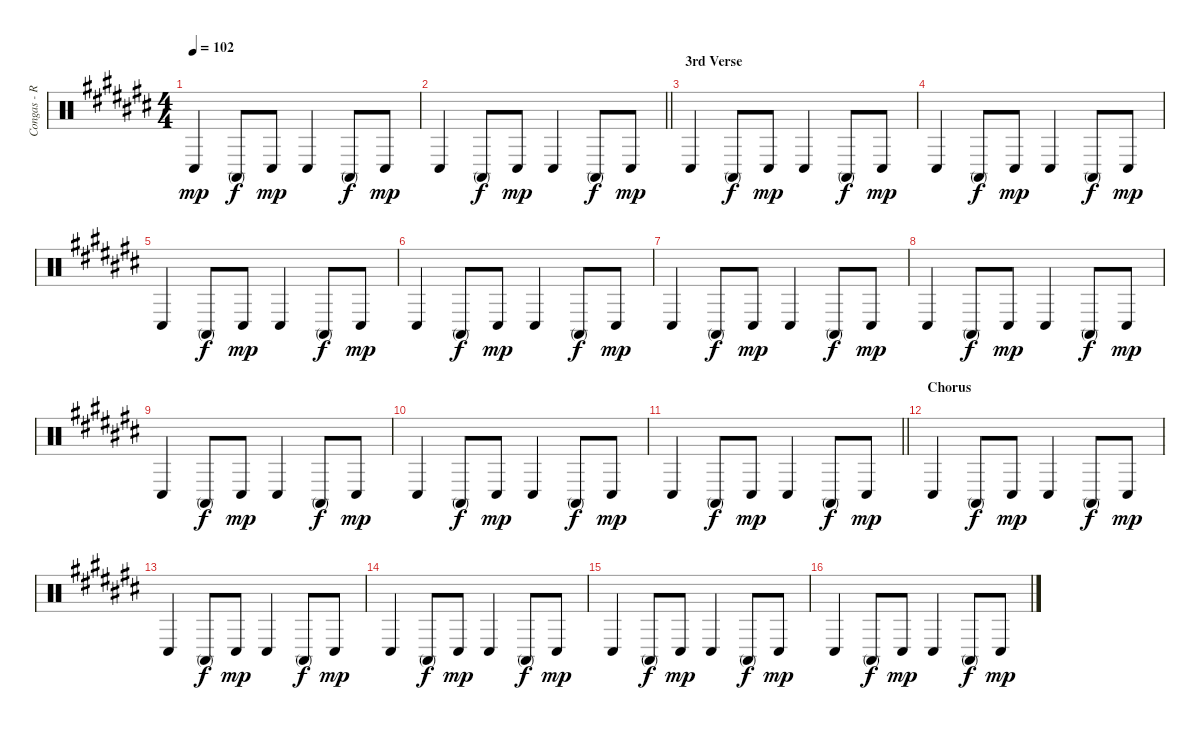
\track ("Congas - Ross Kunkel" "Congas - R") {instrument percussion}
\staff {score}
\articulation defaults
\ts (4 4)
\tempo 102
\clef neutral
\ks c# "Conga low (hit)".4{dy mp} "Conga high (mute)".8{dy f} "Conga low (hit)".8{dy mp} "Conga low (hit)".4 "Conga high (mute)".8{dy f} "Conga low (hit)".8{dy mp}
|
\barLineRight lightlight "Conga low (hit)".4 "Conga high (mute)".8{dy f} "Conga low (hit)".8{dy mp} "Conga low (hit)".4 "Conga high (mute)".8{dy f} "Conga low (hit)".8{dy mp}
|
\section ("" "3rd Verse")
"Conga low (hit)".4 "Conga high (mute)".8{dy f} "Conga low (hit)".8{dy mp} "Conga low (hit)".4 "Conga high (mute)".8{dy f} "Conga low (hit)".8{dy mp} |
"Conga low (hit)".4 "Conga high (mute)".8{dy f} "Conga low (hit)".8{dy mp} "Conga low (hit)".4 "Conga high (mute)".8{dy f} "Conga low (hit)".8{dy mp} |
"Conga low (hit)".4 "Conga high (mute)".8{dy f} "Conga low (hit)".8{dy mp} "Conga low (hit)".4 "Conga high (mute)".8{dy f} "Conga low (hit)".8{dy mp} |
"Conga low (hit)".4 "Conga high (mute)".8{dy f} "Conga low (hit)".8{dy mp} "Conga low (hit)".4 "Conga high (mute)".8{dy f} "Conga low (hit)".8{dy mp} |
"Conga low (hit)".4 "Conga high (mute)".8{dy f} "Conga low (hit)".8{dy mp} "Conga low (hit)".4 "Conga high (mute)".8{dy f} "Conga low (hit)".8{dy mp} |
"Conga low (hit)".4 "Conga high (mute)".8{dy f} "Conga low (hit)".8{dy mp} "Conga low (hit)".4 "Conga high (mute)".8{dy f} "Conga low (hit)".8{dy mp} |
"Conga low (hit)".4 "Conga high (mute)".8{dy f} "Conga low (hit)".8{dy mp} "Conga low (hit)".4 "Conga high (mute)".8{dy f} "Conga low (hit)".8{dy mp} |
"Conga low (hit)".4 "Conga high (mute)".8{dy f} "Conga low (hit)".8{dy mp} "Conga low (hit)".4 "Conga high (mute)".8{dy f} "Conga low (hit)".8{dy mp} |
\barLineRight lightlight "Conga low (hit)".4 "Conga high (mute)".8{dy f} "Conga low (hit)".8{dy mp} "Conga low (hit)".4 "Conga high (mute)".8{dy f} "Conga low (hit)".8{dy mp}
|
\section ("" "Chorus")
"Conga low (hit)".4 "Conga high (mute)".8{dy f} "Conga low (hit)".8{dy mp} "Conga low (hit)".4 "Conga high (mute)".8{dy f} "Conga low (hit)".8{dy mp} |
"Conga low (hit)".4 "Conga high (mute)".8{dy f} "Conga low (hit)".8{dy mp} "Conga low (hit)".4 "Conga high (mute)".8{dy f} "Conga low (hit)".8{dy mp} |
"Conga low (hit)".4 "Conga high (mute)".8{dy f} "Conga low (hit)".8{dy mp} "Conga low (hit)".4 "Conga high (mute)".8{dy f} "Conga low (hit)".8{dy mp} |
"Conga low (hit)".4 "Conga high (mute)".8{dy f} "Conga low (hit)".8{dy mp} "Conga low (hit)".4 "Conga high (mute)".8{dy f} "Conga low (hit)".8{dy mp} |
"Conga low (hit)".4 "Conga high (mute)".8{dy f} "Conga low (hit)".8{dy mp} "Conga low (hit)".4 "Conga high (mute)".8{dy f} "Conga low (hit)".8{dy mp}
